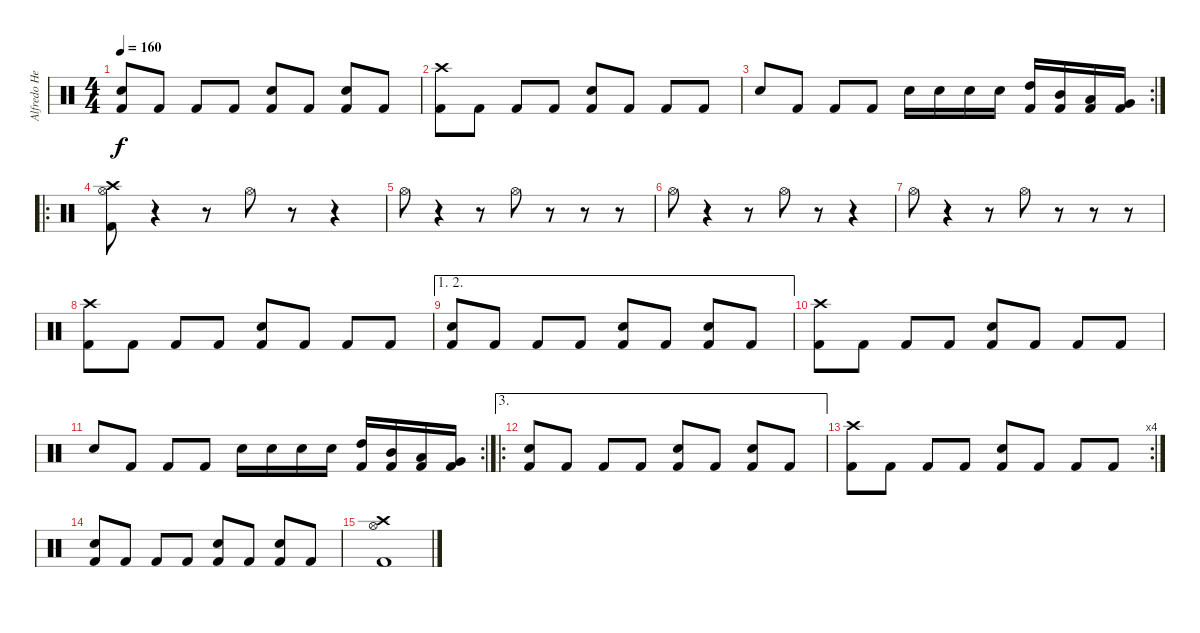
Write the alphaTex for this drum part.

\track ("Alfredo Hernandez" "Alfredo He") {instrument percussion}
\staff {score}
\articulation defaults
\ts (4 4)
\tempo 160
\clef neutral
\ks c
("Electric Snare (hit)" "Kick (hit) 2").8{dy f} "Kick (hit) 2".8 "Kick (hit) 2".8 "Kick (hit) 2".8 ("Electric Snare (hit)" "Kick (hit) 2").8 "Kick (hit) 2".8 ("Electric Snare (hit)" "Kick (hit) 2").8 "Kick (hit) 2".8 |
("Crash high (hit)" "Kick (hit) 2").8 "Kick (hit) 2".8 "Kick (hit) 2".8 "Kick (hit) 2".8 ("Electric Snare (hit)" "Kick (hit) 2").8 "Kick (hit) 2".8 "Kick (hit) 2".8 "Kick (hit) 2".8 |
\rc 2 "Electric Snare (hit)".8 "Kick (hit) 2".8 "Kick (hit) 2".8 "Kick (hit) 2".8 "Electric Snare (hit)".16 "Electric Snare (hit)".16 "Electric Snare (hit)".16 "Electric Snare (hit)".16
("High Tom (hit)" "Kick (hit) 2").16 ("Mid Tom (hit)" "Kick (hit) 2").16 ("Low Tom (hit)" "Kick (hit) 2").16 ("Very Low Tom (hit)" "Kick (hit) 2").16 |
\ro
("Crash high (hit)" "Hi-Hat (open)" "Kick (hit) 2").8 r.4 r.8 "Hi-Hat (open)".8 r.8 r.4 |
"Hi-Hat (open)".8 r.4 r.8 "Hi-Hat (open)".8 r.8 r.8 r.8 |
"Hi-Hat (open)".8 r.4 r.8 "Hi-Hat (open)".8 r.8 r.4 |
"Hi-Hat (open)".8 r.4 r.8 "Hi-Hat (open)".8 r.8 r.8 r.8 |
("Crash high (hit)" "Kick (hit) 2").8 "Kick (hit) 2".8 "Kick (hit) 2".8 "Kick (hit) 2".8 ("Electric Snare (hit)" "Kick (hit) 2").8 "Kick (hit) 2".8 "Kick (hit) 2".8 "Kick (hit) 2".8 |
\ae (1 2)
("Electric Snare (hit)" "Kick (hit) 2").8 "Kick (hit) 2".8 "Kick (hit) 2".8 "Kick (hit) 2".8 ("Electric Snare (hit)" "Kick (hit) 2").8 "Kick (hit) 2".8 ("Electric Snare (hit)" "Kick (hit) 2").8 "Kick (hit) 2".8 |
("Crash high (hit)" "Kick (hit) 2").8 "Kick (hit) 2".8 "Kick (hit) 2".8 "Kick (hit) 2".8 ("Electric Snare (hit)" "Kick (hit) 2").8 "Kick (hit) 2".8 "Kick (hit) 2".8 "Kick (hit) 2".8 |
\rc 2 "Electric Snare (hit)".8 "Kick (hit) 2".8 "Kick (hit) 2".8 "Kick (hit) 2".8 "Electric Snare (hit)".16 "Electric Snare (hit)".16 "Electric Snare (hit)".16 "Electric Snare (hit)".16
("High Tom (hit)" "Kick (hit) 2").16 ("Mid Tom (hit)" "Kick (hit) 2").16 ("Low Tom (hit)" "Kick (hit) 2").16 ("Very Low Tom (hit)" "Kick (hit) 2").16 |
\ae 3
\ro
("Electric Snare (hit)" "Kick (hit) 2").8 "Kick (hit) 2".8 "Kick (hit) 2".8 "Kick (hit) 2".8 ("Electric Snare (hit)" "Kick (hit) 2").8 "Kick (hit) 2".8 ("Electric Snare (hit)" "Kick (hit) 2").8 "Kick (hit) 2".8 |
\rc 4
("Crash high (hit)" "Kick (hit) 2").8 "Kick (hit) 2".8 "Kick (hit) 2".8 "Kick (hit) 2".8 ("Electric Snare (hit)" "Kick (hit) 2").8 "Kick (hit) 2".8 "Kick (hit) 2".8 "Kick (hit) 2".8 |
("Electric Snare (hit)" "Kick (hit) 2").8 "Kick (hit) 2".8 "Kick (hit) 2".8 "Kick (hit) 2".8 ("Electric Snare (hit)" "Kick (hit) 2").8 "Kick (hit) 2".8 ("Electric Snare (hit)" "Kick (hit) 2").8 "Kick (hit) 2".8 |
("Crash high (hit)" "Hi-Hat (open)" "Kick (hit) 2").1
